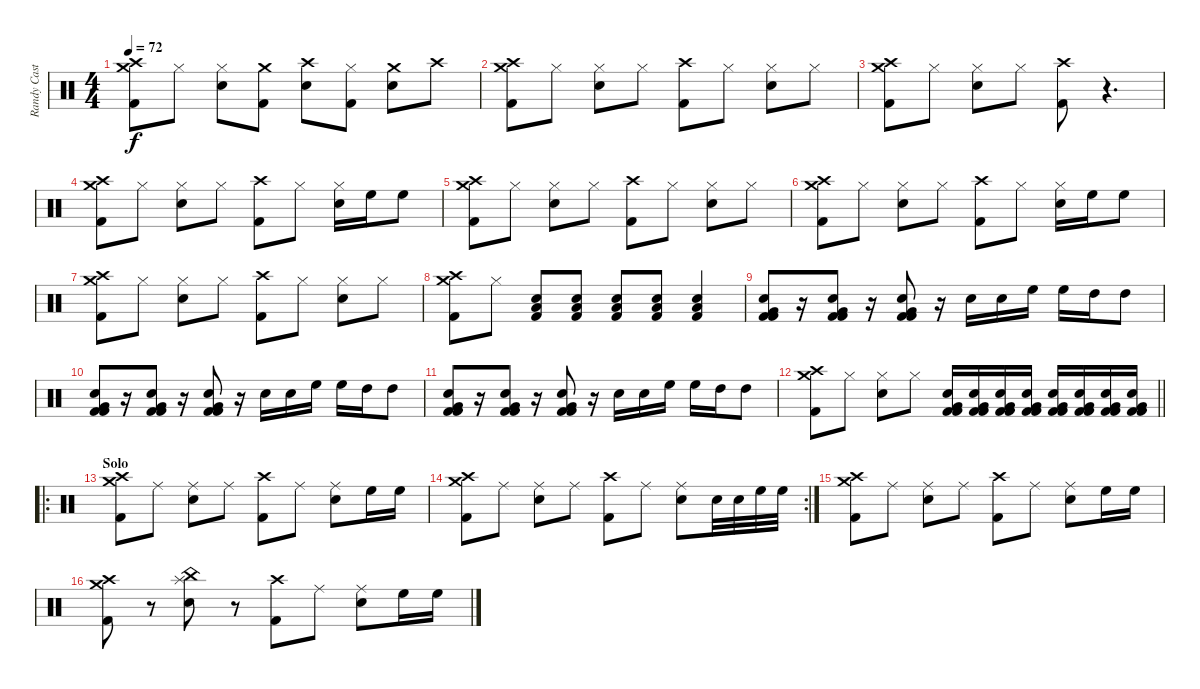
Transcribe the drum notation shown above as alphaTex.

\track ("Randy Castillo" "Randy Cast") {instrument percussion}
\staff {score}
\articulation defaults
\ts (4 4)
\tempo 72
\clef neutral
\ks c
("Crash medium (hit)" "Crash high (hit)" "Kick (hit) 2").8{dy f} "Hi-Hat (closed)".8 ("Hi-Hat (closed)" "Snare (hit) 2").8 ("Crash medium (hit)" "Kick (hit) 2").8 ("Crash high (hit)" "Snare (hit) 2").8 ("Hi-Hat (closed)" "Kick (hit) 2").8 ("Crash medium (hit)" "Snare (hit) 2").8 "Crash high (hit)".8 |
("Crash medium (hit)" "Crash high (hit)" "Kick (hit) 2").8 "Hi-Hat (closed)".8 ("Hi-Hat (closed)" "Snare (hit) 2").8 "Hi-Hat (closed)".8 ("Crash high (hit)" "Kick (hit) 2").8 "Hi-Hat (closed)".8 ("Hi-Hat (closed)" "Snare (hit) 2").8 "Hi-Hat (closed)".8 |
("Crash medium (hit)" "Crash high (hit)" "Kick (hit) 2").8 "Hi-Hat (closed)".8 ("Hi-Hat (closed)" "Snare (hit) 2").8 "Hi-Hat (closed)".8 ("Crash high (hit)" "Kick (hit) 2").8 r.4{d} |
("Crash medium (hit)" "Crash high (hit)" "Kick (hit) 2").8 "Hi-Hat (closed)".8 ("Hi-Hat (closed)" "Snare (hit) 2").8 "Hi-Hat (closed)".8 ("Crash high (hit)" "Kick (hit) 2").8 "Hi-Hat (closed)".8 ("Hi-Hat (closed)" "Snare (hit) 2").16 "High Floor Tom (hit)".16 "High Floor Tom (hit)".8 |
("Crash medium (hit)" "Crash high (hit)" "Kick (hit) 2").8 "Hi-Hat (closed)".8 ("Hi-Hat (closed)" "Snare (hit) 2").8 "Hi-Hat (closed)".8 ("Crash high (hit)" "Kick (hit) 2").8 "Hi-Hat (closed)".8 ("Hi-Hat (closed)" "Snare (hit) 2").8 "Hi-Hat (closed)".8 |
("Crash medium (hit)" "Crash high (hit)" "Kick (hit) 2").8 "Hi-Hat (closed)".8 ("Hi-Hat (closed)" "Snare (hit) 2").8 "Hi-Hat (closed)".8 ("Crash high (hit)" "Kick (hit) 2").8 "Hi-Hat (closed)".8 ("Hi-Hat (closed)" "Snare (hit) 2").16 "High Floor Tom (hit)".16 "High Floor Tom (hit)".8 |
("Crash medium (hit)" "Crash high (hit)" "Kick (hit) 2").8 "Hi-Hat (closed)".8 ("Hi-Hat (closed)" "Snare (hit) 2").8 "Hi-Hat (closed)".8 ("Crash high (hit)" "Kick (hit) 2").8 "Hi-Hat (closed)".8 ("Hi-Hat (closed)" "Snare (hit) 2").8 "Hi-Hat (closed)".8 |
("Crash medium (hit)" "Crash high (hit)" "Kick (hit) 2").8 "Hi-Hat (closed)".8 ("Snare (hit) 2" "Low Floor Tom (hit)" "Kick (hit) 2").8 ("Snare (hit) 2" "Low Floor Tom (hit)" "Kick (hit) 2").8 ("Snare (hit) 2" "Low Floor Tom (hit)" "Kick (hit) 2").8 ("Snare (hit) 2" "Low Floor Tom (hit)" "Kick (hit) 2").8 ("Snare (hit) 2" "Low Floor Tom (hit)" "Kick (hit) 2").4 |
("Snare (hit) 2" "Very Low Tom (hit)" "Kick (hit) 2" "Kick (hit) 2").8 r.16 ("Snare (hit) 2" "Very Low Tom (hit)" "Kick (hit) 2" "Kick (hit) 2").8 r.16 ("Snare (hit) 2" "Very Low Tom (hit)" "Kick (hit) 2" "Kick (hit) 2").8 r.16 "Snare (hit) 2".16 "Snare (hit) 2".16 "High Floor Tom (hit)".16 "High Floor Tom (hit)".16 "High Tom (hit)".16 "High Tom (hit)".8 |
("Snare (hit) 2" "Very Low Tom (hit)" "Kick (hit) 2" "Kick (hit) 2").8 r.16 ("Snare (hit) 2" "Very Low Tom (hit)" "Kick (hit) 2" "Kick (hit) 2").8 r.16 ("Snare (hit) 2" "Very Low Tom (hit)" "Kick (hit) 2" "Kick (hit) 2").8 r.16 "Snare (hit) 2".16 "Snare (hit) 2".16 "High Floor Tom (hit)".16 "High Floor Tom (hit)".16 "High Tom (hit)".16 "High Tom (hit)".8 |
("Snare (hit) 2" "Very Low Tom (hit)" "Kick (hit) 2" "Kick (hit) 2").8 r.16 ("Snare (hit) 2" "Very Low Tom (hit)" "Kick (hit) 2" "Kick (hit) 2").8 r.16 ("Snare (hit) 2" "Very Low Tom (hit)" "Kick (hit) 2" "Kick (hit) 2").8 r.16 "Snare (hit) 2".16 "Snare (hit) 2".16 "High Floor Tom (hit)".16 "High Floor Tom (hit)".16 "High Tom (hit)".16 "High Tom (hit)".8 |
\barLineRight lightlight
("Crash medium (hit)" "Crash high (hit)" "Kick (hit) 2").8 "Hi-Hat (closed)".8 ("Hi-Hat (closed)" "Snare (hit) 2").8 "Hi-Hat (closed)".8 ("Snare (hit) 2" "Very Low Tom (hit)" "Kick (hit) 2" "Kick (hit) 2").16 ("Snare (hit) 2" "Very Low Tom (hit)" "Kick (hit) 2" "Kick (hit) 2").16 ("Snare (hit) 2" "Very Low Tom (hit)" "Kick (hit) 2" "Kick (hit) 2").16 ("Snare (hit) 2" "Very Low Tom (hit)" "Kick (hit) 2" "Kick (hit) 2").16 ("Snare (hit) 2" "Very Low Tom (hit)" "Kick (hit) 2" "Kick (hit) 2").16 ("Snare (hit) 2" "Very Low Tom (hit)" "Kick (hit) 2" "Kick (hit) 2").16 ("Snare (hit) 2" "Very Low Tom (hit)" "Kick (hit) 2" "Kick (hit) 2").16 ("Snare (hit) 2" "Very Low Tom (hit)" "Kick (hit) 2" "Kick (hit) 2").16 |
\ro
\section ("" "Solo")
("Crash medium (hit)" "Crash high (hit)" "Kick (hit) 2").8 "Ride (middle)".8 ("Ride (middle)" "Snare (hit) 2").8 "Ride (middle)".8 ("Crash high (hit)" "Kick (hit) 2").8 "Ride (middle)".8 ("Ride (middle)" "Snare (hit) 2").8 "High Floor Tom (hit)".16 "High Floor Tom (hit)".16 |
\rc 2
("Crash medium (hit)" "Crash high (hit)" "Kick (hit) 2").8 "Ride (middle)".8 ("Ride (middle)" "Snare (hit) 2").8 "Ride (middle)".8 ("Crash high (hit)" "Kick (hit) 2").8 "Ride (middle)".8 ("Ride (middle)" "Snare (hit) 2").8 "Snare (hit) 2".32 "Snare (hit) 2".32 "High Floor Tom (hit)".32 "High Floor Tom (hit)".32 |
("Crash medium (hit)" "Crash high (hit)" "Kick (hit) 2").8 "Ride (middle)".8 ("Ride (middle)" "Snare (hit) 2").8 "Ride (middle)".8 ("Crash high (hit)" "Kick (hit) 2").8 "Ride (middle)".8 ("Ride (middle)" "Snare (hit) 2").8 "High Floor Tom (hit)".16 "High Floor Tom (hit)".16 |
("Crash medium (hit)" "Crash high (hit)" "Kick (hit) 2").8 r.8 ("China (hit)" "Splash (hit)" "Snare (hit) 2").8 r.8 ("Crash high (hit)" "Kick (hit) 2").8 "Ride (middle)".8 ("Ride (middle)" "Snare (hit) 2").8 "High Floor Tom (hit)".16 "High Floor Tom (hit)".16
